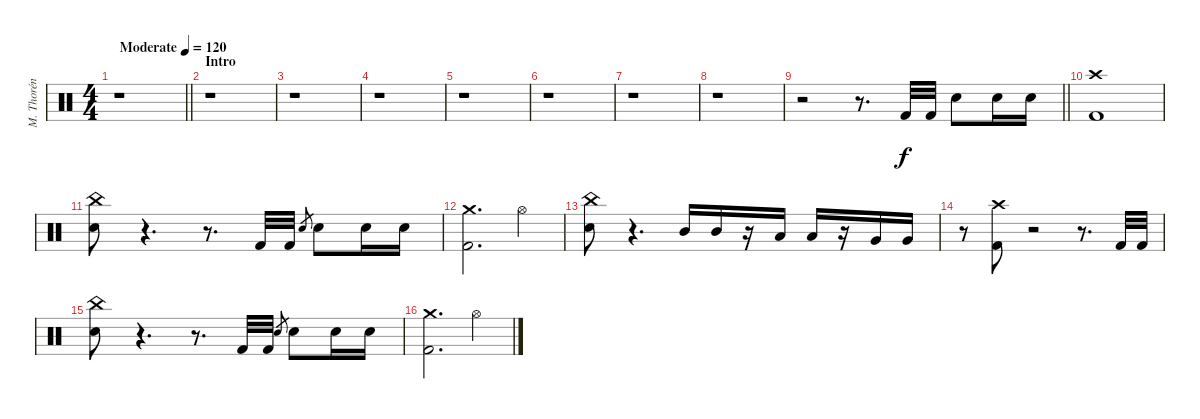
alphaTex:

\track ("M. Thorén (Drums)" "M. Thorén ") {instrument percussion}
\staff {score}
\articulation defaults
\ts (4 4)
\tempo (120 "Moderate")
\clef neutral
\barLineRight lightlight
\ks c
r.1{dy f} |
\section ("" "Intro")
r.1 |
r.1 |
r.1 |
r.1 |
r.1 |
r.1 |
r.1 |
\barLineRight lightlight
r.2 r.8{d} "Kick (hit) 2".32 "Kick (hit) 2".32 "Electric Snare (hit)".8 "Electric Snare (hit)".16 "Electric Snare (hit)".16 |
("Crash high (hit)" "Kick (hit) 2").1 |
("China (hit)" "Electric Snare (hit)").8 r.4{d} r.8{d} "Kick (hit) 2".32 "Kick (hit) 2".32 "Electric Snare (hit)".8{gr} "Electric Snare (hit)".8 "Electric Snare (hit)".16 "Electric Snare (hit)".16 |
("Crash medium (hit)" "Kick (hit) 2").2{d} "Hi-Hat (open)".4 |
("China (hit)" "Electric Snare (hit)").8 r.4{d} "Mid Tom (hit)".16 "Mid Tom (hit)".16 r.16 "Low Tom (hit)".16 "Low Tom (hit)".16 r.16 "Very Low Tom (hit)".16 "Very Low Tom (hit)".16 |
r.8 ("Crash high (hit)" "Kick (hit) 2").8 r.2 r.8{d} "Kick (hit) 2".32 "Kick (hit) 2".32 |
("China (hit)" "Electric Snare (hit)").8 r.4{d} r.8{d} "Kick (hit) 2".32 "Kick (hit) 2".32 "Electric Snare (hit)".8{gr} "Electric Snare (hit)".8 "Electric Snare (hit)".16 "Electric Snare (hit)".16 |
("Crash medium (hit)" "Kick (hit) 2").2{d} "Hi-Hat (open)".4
